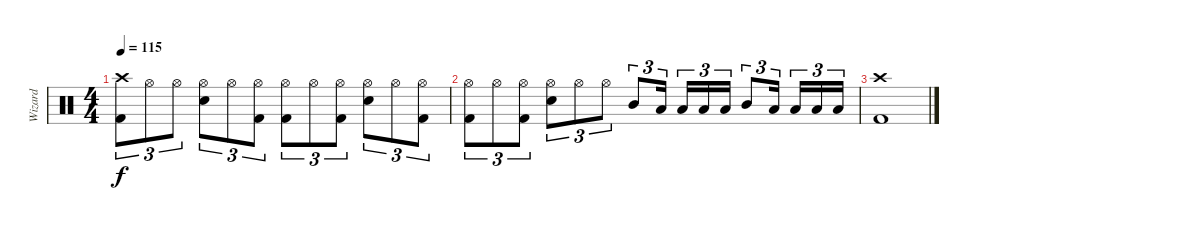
\track ("Wizard" "Wizard") {instrument percussion}
\staff {score}
\articulation defaults
\ts (4 4)
\tempo 115
\clef neutral
\ks c
("Crash high (hit)" "Kick (hit) 2").8{tu (3 2) dy f} "Hi-Hat (open)".8{tu (3 2)} "Hi-Hat (open)".8{tu (3 2)} ("Hi-Hat (open)" "Snare (hit) 2").8{tu (3 2)} "Hi-Hat (open)".8{tu (3 2)} ("Hi-Hat (open)" "Kick (hit) 2").8{tu (3 2)} ("Hi-Hat (open)" "Kick (hit) 2").8{tu (3 2)} "Hi-Hat (open)".8{tu (3 2)} ("Hi-Hat (open)" "Kick (hit) 2").8{tu (3 2)} ("Hi-Hat (open)" "Snare (hit) 2").8{tu (3 2)} "Hi-Hat (open)".8{tu (3 2)} ("Hi-Hat (open)" "Kick (hit) 2").8{tu (3 2)} |
("Hi-Hat (open)" "Kick (hit) 2").8{tu (3 2)} "Hi-Hat (open)".8{tu (3 2)} ("Hi-Hat (open)" "Kick (hit) 2").8{tu (3 2)} ("Hi-Hat (open)" "Snare (hit) 2").8{tu (3 2)} "Hi-Hat (open)".8{tu (3 2)} "Hi-Hat (open)".8{tu (3 2)} "Mid Tom (hit)".8{tu (3 2)} "Low Tom (hit)".16{tu (3 2) beam splitsecondary} "Low Tom (hit)".16{tu (3 2)} "Low Tom (hit)".16{tu (3 2)} "Low Tom (hit)".16{tu (3 2)} "Mid Tom (hit)".8{tu (3 2)} "Low Tom (hit)".16{tu (3 2) beam splitsecondary} "Low Tom (hit)".16{tu (3 2)} "Low Tom (hit)".16{tu (3 2)} "Low Tom (hit)".16{tu (3 2)} |
("Crash high (hit)" "Kick (hit) 2").1
